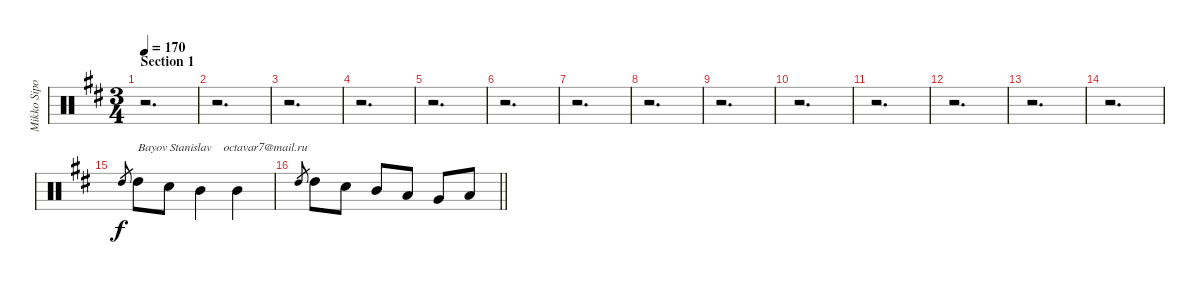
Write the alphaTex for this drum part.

\track ("Mikko Sipola (drums)" "Mikko Sipo") {instrument percussion}
\staff {score}
\articulation defaults
\ts (3 4)
\section ("" "Section 1")
\tempo 170
\clef neutral
\ks bminor
r.2{d dy f} |
r.2{d} |
r.2{d} |
r.2{d} |
r.2{d} |
r.2{d} |
r.2{d} |
r.2{d} |
r.2{d} |
r.2{d} |
r.2{d} |
r.2{d} |
r.2{d} |
r.2{d} |
"High Tom (hit)".8{gr} "High Tom (hit)".8{txt "Bayov Stanislav    octavar7@mail.ru"} "Electric Snare (hit)".8 "Mid Tom (hit)".4 "Mid Tom (hit)".4 |
\barLineRight lightlight "High Tom (hit)".8{gr} "High Tom (hit)".8 "Electric Snare (hit)".8 "Mid Tom (hit)".8 "Low Tom (hit)".8 "Very Low Tom (hit)".8 "Low Floor Tom (hit)".8
